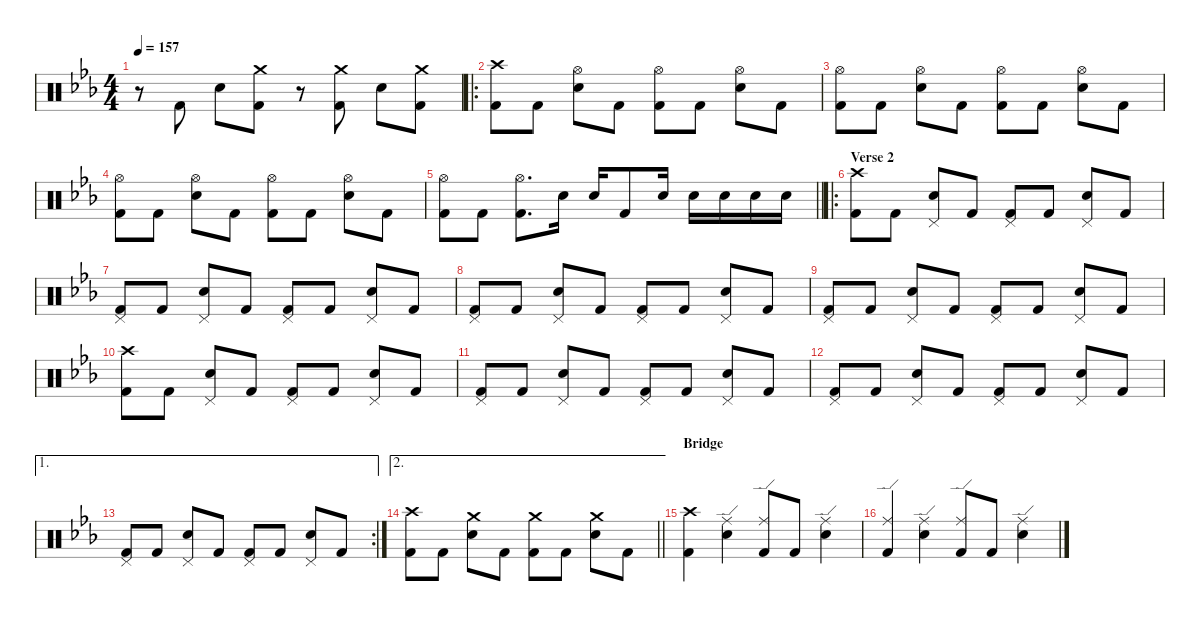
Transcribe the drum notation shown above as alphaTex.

\defaultSystemsLayout 4
\hideDynamics
\bracketExtendMode nobrackets
\singleTrackTrackNamePolicy hidden
\multiTrackTrackNamePolicy hidden
\firstSystemTrackNameMode fullname
\firstSystemTrackNameOrientation horizontal
\otherSystemsTrackNameOrientation horizontal
\track ("Drums" "drm.") {instrument percussion}
\staff {score}
\articulation defaults
\ts (4 4)
\tempo 157
\clef neutral
\ks cminor
r.8{dy f beam Down} "Kick (hit) 2"{acc forcenatural}.8{beam Up} "Snare (hit) 2"{acc forcenatural}.8{beam Down} ("Crash medium (hit)"{acc forcenatural} "Kick (hit) 2"{acc forcenatural}).8{dy mf beam Down} r.8{beam Down} ("Crash medium (hit)"{acc forcenatural} "Kick (hit) 2"{acc forcenatural}).8{beam Down} "Snare (hit) 2"{acc forcenatural}.8{dy f beam Down} ("Crash medium (hit)"{acc forcenatural} "Kick (hit) 2"{acc forcenatural}).8{dy mf beam Down} |
\ro
("Crash high (hit)"{acc forcenatural} "Kick (hit) 2"{acc forcenatural}).8{dy f beam Down} "Kick (hit) 2"{acc forcenatural}.8{beam Down} ("Hi-Hat (open)"{acc forcenatural} "Snare (hit) 2"{acc forcenatural}).8{beam Down} "Kick (hit) 2"{acc forcenatural}.8{beam Down} ("Hi-Hat (open)"{acc forcenatural} "Kick (hit) 2"{acc forcenatural}).8{beam Down} "Kick (hit) 2"{acc forcenatural}.8{beam Down} ("Hi-Hat (open)"{acc forcenatural} "Snare (hit) 2"{acc forcenatural}).8{beam Down} "Kick (hit) 2"{acc forcenatural}.8{beam Down} |
("Hi-Hat (open)"{acc forcenatural} "Kick (hit) 2"{acc forcenatural}).8{beam Down} "Kick (hit) 2"{acc forcenatural}.8{beam Down} ("Hi-Hat (open)"{acc forcenatural} "Snare (hit) 2"{acc forcenatural}).8{beam Down} "Kick (hit) 2"{acc forcenatural}.8{beam Down} ("Hi-Hat (open)"{acc forcenatural} "Kick (hit) 2"{acc forcenatural}).8{beam Down} "Kick (hit) 2"{acc forcenatural}.8{beam Down} ("Hi-Hat (open)"{acc forcenatural} "Snare (hit) 2"{acc forcenatural}).8{beam Down} "Kick (hit) 2"{acc forcenatural}.8{beam Down} |
("Hi-Hat (open)"{acc forcenatural} "Kick (hit) 2"{acc forcenatural}).8{beam Down} "Kick (hit) 2"{acc forcenatural}.8{beam Down} ("Hi-Hat (open)"{acc forcenatural} "Snare (hit) 2"{acc forcenatural}).8{beam Down} "Kick (hit) 2"{acc forcenatural}.8{beam Down} ("Hi-Hat (open)"{acc forcenatural} "Kick (hit) 2"{acc forcenatural}).8{beam Down} "Kick (hit) 2"{acc forcenatural}.8{beam Down} ("Hi-Hat (open)"{acc forcenatural} "Snare (hit) 2"{acc forcenatural}).8{beam Down} "Kick (hit) 2"{acc forcenatural}.8{beam Down} |
\barLineRight lightlight
("Hi-Hat (open)"{acc forcenatural} "Kick (hit) 2"{acc forcenatural}).8{beam Down} "Kick (hit) 2"{acc forcenatural}.8{beam Down} ("Hi-Hat (open)"{acc forcenatural} "Kick (hit) 2"{acc forcenatural}).8{d beam Down} "Snare (hit) 2"{acc forcenatural}.16{dy mp beam Down} "Snare (hit) 2"{acc forcenatural}.16{dy f beam Up} "Kick (hit) 2"{acc forcenatural}.8{beam Up} "Snare (hit) 2"{acc forcenatural}.16{dy mf beam Up} "Snare (hit) 2"{acc forcenatural}.16{dy f beam Down} "Snare (hit) 2"{acc forcenatural}.16{beam Down} "Snare (hit) 2"{acc forcenatural}.16{beam Down} "Snare (hit) 2"{acc forcenatural}.16{beam Down} |
\ro
\section ("" "Verse 2")
("Crash high (hit)"{acc forcenatural} "Kick (hit) 2"{acc forcenatural}).8{beam Down} "Kick (hit) 2"{acc forcenatural}.8{beam Down} ("Pedal Hi-Hat (hit)"{acc forcenatural} "Snare (hit) 2"{acc forcenatural}).8{beam Up} "Kick (hit) 2"{acc forcenatural}.8{beam Up} ("Pedal Hi-Hat (hit)"{acc forcenatural} "Kick (hit) 2"{acc forcenatural}).8{beam Up} "Kick (hit) 2"{acc forcenatural}.8{beam Up} ("Pedal Hi-Hat (hit)"{acc forcenatural} "Snare (hit) 2"{acc forcenatural}).8{beam Up} "Kick (hit) 2"{acc forcenatural}.8{beam Up} |
("Pedal Hi-Hat (hit)"{acc forcenatural} "Kick (hit) 2"{acc forcenatural}).8{beam Up} "Kick (hit) 2"{acc forcenatural}.8{beam Up} ("Pedal Hi-Hat (hit)"{acc forcenatural} "Snare (hit) 2"{acc forcenatural}).8{beam Up} "Kick (hit) 2"{acc forcenatural}.8{beam Up} ("Pedal Hi-Hat (hit)"{acc forcenatural} "Kick (hit) 2"{acc forcenatural}).8{beam Up} "Kick (hit) 2"{acc forcenatural}.8{beam Up} ("Pedal Hi-Hat (hit)"{acc forcenatural} "Snare (hit) 2"{acc forcenatural}).8{beam Up} "Kick (hit) 2"{acc forcenatural}.8{beam Up} |
("Pedal Hi-Hat (hit)"{acc forcenatural} "Kick (hit) 2"{acc forcenatural}).8{beam Up} "Kick (hit) 2"{acc forcenatural}.8{beam Up} ("Pedal Hi-Hat (hit)"{acc forcenatural} "Snare (hit) 2"{acc forcenatural}).8{beam Up} "Kick (hit) 2"{acc forcenatural}.8{beam Up} ("Pedal Hi-Hat (hit)"{acc forcenatural} "Kick (hit) 2"{acc forcenatural}).8{beam Up} "Kick (hit) 2"{acc forcenatural}.8{beam Up} ("Pedal Hi-Hat (hit)"{acc forcenatural} "Snare (hit) 2"{acc forcenatural}).8{beam Up} "Kick (hit) 2"{acc forcenatural}.8{beam Up} |
("Pedal Hi-Hat (hit)"{acc forcenatural} "Kick (hit) 2"{acc forcenatural}).8{beam Up} "Kick (hit) 2"{acc forcenatural}.8{beam Up} ("Pedal Hi-Hat (hit)"{acc forcenatural} "Snare (hit) 2"{acc forcenatural}).8{beam Up} "Kick (hit) 2"{acc forcenatural}.8{beam Up} ("Pedal Hi-Hat (hit)"{acc forcenatural} "Kick (hit) 2"{acc forcenatural}).8{beam Up} "Kick (hit) 2"{acc forcenatural}.8{beam Up} ("Pedal Hi-Hat (hit)"{acc forcenatural} "Snare (hit) 2"{acc forcenatural}).8{beam Up} "Kick (hit) 2"{acc forcenatural}.8{beam Up} |
("Crash high (hit)"{acc forcenatural} "Kick (hit) 2"{acc forcenatural}).8{beam Down} "Kick (hit) 2"{acc forcenatural}.8{beam Down} ("Pedal Hi-Hat (hit)"{acc forcenatural} "Snare (hit) 2"{acc forcenatural}).8{beam Up} "Kick (hit) 2"{acc forcenatural}.8{beam Up} ("Pedal Hi-Hat (hit)"{acc forcenatural} "Kick (hit) 2"{acc forcenatural}).8{beam Up} "Kick (hit) 2"{acc forcenatural}.8{beam Up} ("Pedal Hi-Hat (hit)"{acc forcenatural} "Snare (hit) 2"{acc forcenatural}).8{beam Up} "Kick (hit) 2"{acc forcenatural}.8{beam Up} |
("Pedal Hi-Hat (hit)"{acc forcenatural} "Kick (hit) 2"{acc forcenatural}).8{beam Up} "Kick (hit) 2"{acc forcenatural}.8{beam Up} ("Pedal Hi-Hat (hit)"{acc forcenatural} "Snare (hit) 2"{acc forcenatural}).8{beam Up} "Kick (hit) 2"{acc forcenatural}.8{beam Up} ("Pedal Hi-Hat (hit)"{acc forcenatural} "Kick (hit) 2"{acc forcenatural}).8{beam Up} "Kick (hit) 2"{acc forcenatural}.8{beam Up} ("Pedal Hi-Hat (hit)"{acc forcenatural} "Snare (hit) 2"{acc forcenatural}).8{beam Up} "Kick (hit) 2"{acc forcenatural}.8{beam Up} |
("Pedal Hi-Hat (hit)"{acc forcenatural} "Kick (hit) 2"{acc forcenatural}).8{beam Up} "Kick (hit) 2"{acc forcenatural}.8{beam Up} ("Pedal Hi-Hat (hit)"{acc forcenatural} "Snare (hit) 2"{acc forcenatural}).8{beam Up} "Kick (hit) 2"{acc forcenatural}.8{beam Up} ("Pedal Hi-Hat (hit)"{acc forcenatural} "Kick (hit) 2"{acc forcenatural}).8{beam Up} "Kick (hit) 2"{acc forcenatural}.8{beam Up} ("Pedal Hi-Hat (hit)"{acc forcenatural} "Snare (hit) 2"{acc forcenatural}).8{beam Up} "Kick (hit) 2"{acc forcenatural}.8{beam Up} |
\ae 1
\rc 2
("Pedal Hi-Hat (hit)"{acc forcenatural} "Kick (hit) 2"{acc forcenatural}).8{beam Up} "Kick (hit) 2"{acc forcenatural}.8{beam Up} ("Pedal Hi-Hat (hit)"{acc forcenatural} "Snare (hit) 2"{acc forcenatural}).8{beam Up} "Kick (hit) 2"{acc forcenatural}.8{beam Up} ("Pedal Hi-Hat (hit)"{acc forcenatural} "Kick (hit) 2"{acc forcenatural}).8{beam Up} "Kick (hit) 2"{acc forcenatural}.8{beam Up} ("Pedal Hi-Hat (hit)"{acc forcenatural} "Snare (hit) 2"{acc forcenatural}).8{beam Up} "Kick (hit) 2"{acc forcenatural}.8{beam Up} |
\ae 2
\barLineRight lightlight
("Crash high (hit)"{acc forcenatural} "Kick (hit) 2"{acc forcenatural}).8{dy mp beam Down} "Kick (hit) 2"{acc forcenatural}.8{dy f beam Down} ("Crash medium (hit)"{acc forcenatural} "Snare (hit) 2"{acc forcenatural}).8{dy mp beam Down} "Kick (hit) 2"{acc forcenatural}.8{dy f beam Down} ("Crash medium (hit)"{acc forcenatural} "Kick (hit) 2"{acc forcenatural}).8{dy mf beam Down} "Kick (hit) 2"{acc forcenatural}.8{dy f beam Down} ("Crash medium (hit)"{acc forcenatural} "Snare (hit) 2"{acc forcenatural}).8{beam Down} "Kick (hit) 2"{acc forcenatural}.8{beam Down} |
\section ("" "Bridge")
("Crash high (hit)"{acc forcenatural} "Kick (hit) 2"{acc forcenatural}).4{beam Down} ("Ride (edge)"{acc forcenatural} "Snare (hit) 2"{acc forcenatural}).4{beam Down} ("Ride (edge)"{acc forcenatural} "Kick (hit) 2"{acc forcenatural}).8{beam Up} "Kick (hit) 2"{acc forcenatural}.8{beam Up} ("Ride (edge)"{acc forcenatural} "Snare (hit) 2"{acc forcenatural}).4{beam Down} |
("Ride (edge)"{acc forcenatural} "Kick (hit) 2"{acc forcenatural}).4{beam Up} ("Ride (edge)"{acc forcenatural} "Snare (hit) 2"{acc forcenatural}).4{beam Down} ("Ride (edge)"{acc forcenatural} "Kick (hit) 2"{acc forcenatural}).8{beam Up} "Kick (hit) 2"{acc forcenatural}.8{beam Up} ("Ride (edge)"{acc forcenatural} "Snare (hit) 2"{acc forcenatural}).4{beam Down}
